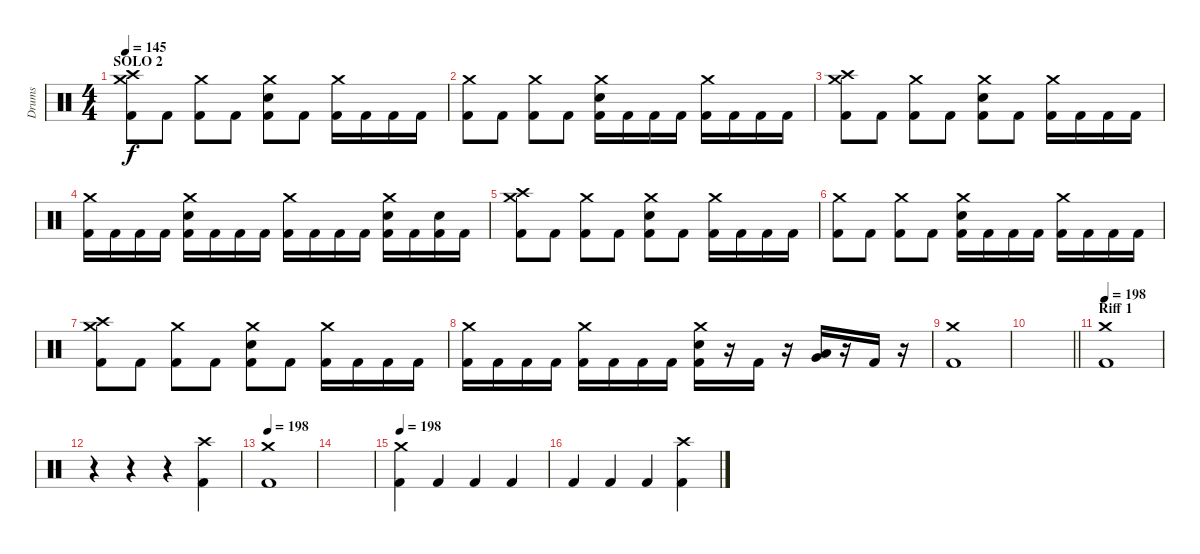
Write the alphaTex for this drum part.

\track ("Drums" "Drums") {instrument percussion}
\staff {score}
\articulation defaults
\ts (4 4)
\section ("" "SOLO 2")
\tempo 145
\clef neutral
\ks c
("Crash high (hit)" "Crash medium (hit)" "Kick (hit) 2").8{dy f} "Kick (hit) 2".8 ("Crash medium (hit)" "Kick (hit) 2").8 "Kick (hit) 2".8 ("Crash medium (hit)" "Snare (hit) 2" "Kick (hit) 2").8 "Kick (hit) 2".8 ("Crash medium (hit)" "Kick (hit) 2").16 "Kick (hit) 2".16 "Kick (hit) 2".16 "Kick (hit) 2".16 |
("Crash medium (hit)" "Kick (hit) 2").8 "Kick (hit) 2".8 ("Crash medium (hit)" "Kick (hit) 2").8 "Kick (hit) 2".8 ("Crash medium (hit)" "Snare (hit) 2" "Kick (hit) 2").16 "Kick (hit) 2".16 "Kick (hit) 2".16 "Kick (hit) 2".16 ("Crash medium (hit)" "Kick (hit) 2").16 "Kick (hit) 2".16 "Kick (hit) 2".16 "Kick (hit) 2".16 |
("Crash high (hit)" "Crash medium (hit)" "Kick (hit) 2").8 "Kick (hit) 2".8 ("Crash medium (hit)" "Kick (hit) 2").8 "Kick (hit) 2".8 ("Crash medium (hit)" "Snare (hit) 2" "Kick (hit) 2").8 "Kick (hit) 2".8 ("Crash medium (hit)" "Kick (hit) 2").16 "Kick (hit) 2".16 "Kick (hit) 2".16 "Kick (hit) 2".16 |
("Crash medium (hit)" "Kick (hit) 2").16 "Kick (hit) 2".16 "Kick (hit) 2".16 "Kick (hit) 2".16 ("Crash medium (hit)" "Snare (hit) 2" "Kick (hit) 2").16 "Kick (hit) 2".16 "Kick (hit) 2".16 "Kick (hit) 2".16 ("Crash medium (hit)" "Kick (hit) 2").16 "Kick (hit) 2".16 "Kick (hit) 2".16 "Kick (hit) 2".16 ("Crash medium (hit)" "Snare (hit) 2" "Kick (hit) 2").16 "Kick (hit) 2".16 ("Snare (hit) 2" "Kick (hit) 2").16 "Kick (hit) 2".16 |
("Crash high (hit)" "Crash medium (hit)" "Kick (hit) 2").8 "Kick (hit) 2".8 ("Crash medium (hit)" "Kick (hit) 2").8 "Kick (hit) 2".8 ("Crash medium (hit)" "Snare (hit) 2" "Kick (hit) 2").8 "Kick (hit) 2".8 ("Crash medium (hit)" "Kick (hit) 2").16 "Kick (hit) 2".16 "Kick (hit) 2".16 "Kick (hit) 2".16 |
("Crash medium (hit)" "Kick (hit) 2").8 "Kick (hit) 2".8 ("Crash medium (hit)" "Kick (hit) 2").8 "Kick (hit) 2".8 ("Crash medium (hit)" "Snare (hit) 2" "Kick (hit) 2").16 "Kick (hit) 2".16 "Kick (hit) 2".16 "Kick (hit) 2".16 ("Crash medium (hit)" "Kick (hit) 2").16 "Kick (hit) 2".16 "Kick (hit) 2".16 "Kick (hit) 2".16 |
("Crash high (hit)" "Crash medium (hit)" "Kick (hit) 2").8 "Kick (hit) 2".8 ("Crash medium (hit)" "Kick (hit) 2").8 "Kick (hit) 2".8 ("Crash medium (hit)" "Snare (hit) 2" "Kick (hit) 2").8 "Kick (hit) 2".8 ("Crash medium (hit)" "Kick (hit) 2").16 "Kick (hit) 2".16 "Kick (hit) 2".16 "Kick (hit) 2".16 |
("Crash medium (hit)" "Kick (hit) 2").16 "Kick (hit) 2".16 "Kick (hit) 2".16 "Kick (hit) 2".16 ("Crash medium (hit)" "Kick (hit) 2").16 "Kick (hit) 2".16 "Kick (hit) 2".16 "Kick (hit) 2".16 ("Crash medium (hit)" "Snare (hit) 2" "Kick (hit) 2").16 r.16 "Kick (hit) 2".16 r.16 ("Very Low Tom (hit)" "Low Tom (hit)").16 r.16 "Kick (hit) 2".16 r.16 |
("Crash medium (hit)" "Kick (hit) 2").1 |
\barLineRight lightlight
|
\section ("" "Riff 1")
\tempo 198
("Crash medium (hit)" "Kick (hit) 2").1 |
r.4 r.4 r.4 ("Crash high (hit)" "Kick (hit) 2").4 |
\tempo 198
("Crash medium (hit)" "Kick (hit) 2").1 |
|
\tempo 198
("Crash medium (hit)" "Kick (hit) 2").4 "Kick (hit) 2".4 "Kick (hit) 2".4 "Kick (hit) 2".4 |
"Kick (hit) 2".4 "Kick (hit) 2".4 "Kick (hit) 2".4 ("Crash high (hit)" "Kick (hit) 2").4
